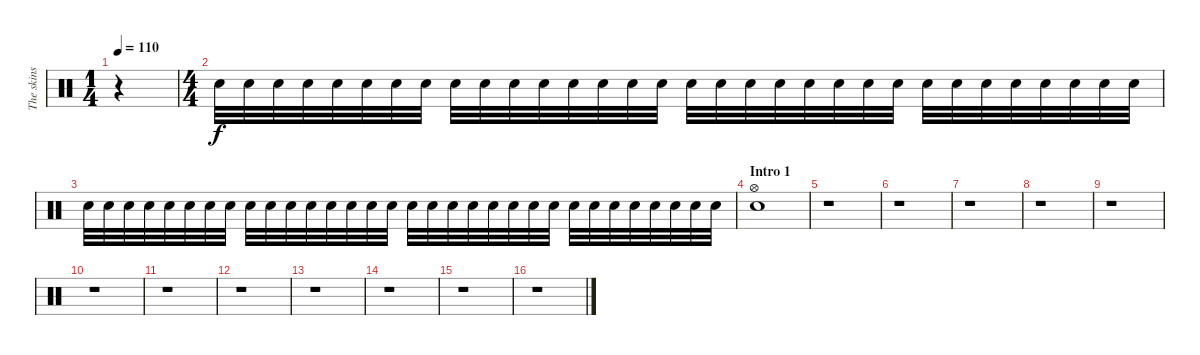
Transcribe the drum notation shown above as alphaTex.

\track ("The skins" "The skins") {instrument percussion}
\staff {score}
\articulation defaults
\ts (1 4)
\tempo 110
\clef neutral
\ks c
r.4{dy f} |
\ts (4 4)
"Electric Snare (hit)".32{volume 0} "Electric Snare (hit)".32 "Electric Snare (hit)".32 "Electric Snare (hit)".32 "Electric Snare (hit)".32 "Electric Snare (hit)".32 "Electric Snare (hit)".32 "Electric Snare (hit)".32 "Electric Snare (hit)".32{volume 13} "Electric Snare (hit)".32 "Electric Snare (hit)".32 "Electric Snare (hit)".32 "Electric Snare (hit)".32 "Electric Snare (hit)".32 "Electric Snare (hit)".32 "Electric Snare (hit)".32 "Electric Snare (hit)".32 "Electric Snare (hit)".32 "Electric Snare (hit)".32 "Electric Snare (hit)".32 "Electric Snare (hit)".32 "Electric Snare (hit)".32 "Electric Snare (hit)".32 "Electric Snare (hit)".32 "Electric Snare (hit)".32 "Electric Snare (hit)".32 "Electric Snare (hit)".32 "Electric Snare (hit)".32 "Electric Snare (hit)".32 "Electric Snare (hit)".32 "Electric Snare (hit)".32 "Electric Snare (hit)".32 |
"Electric Snare (hit)".32 "Electric Snare (hit)".32 "Electric Snare (hit)".32 "Electric Snare (hit)".32 "Electric Snare (hit)".32 "Electric Snare (hit)".32 "Electric Snare (hit)".32 "Electric Snare (hit)".32 "Electric Snare (hit)".32 "Electric Snare (hit)".32 "Electric Snare (hit)".32 "Electric Snare (hit)".32 "Electric Snare (hit)".32 "Electric Snare (hit)".32 "Electric Snare (hit)".32 "Electric Snare (hit)".32 "Electric Snare (hit)".32 "Electric Snare (hit)".32 "Electric Snare (hit)".32 "Electric Snare (hit)".32 "Electric Snare (hit)".32 "Electric Snare (hit)".32 "Electric Snare (hit)".32 "Electric Snare (hit)".32 "Electric Snare (hit)".32 "Electric Snare (hit)".32 "Electric Snare (hit)".32 "Electric Snare (hit)".32 "Electric Snare (hit)".32 "Electric Snare (hit)".32 "Electric Snare (hit)".32 "Electric Snare (hit)".32 |
\section ("" "Intro 1")
("Hi-Hat (open)" "Electric Snare (hit)").1 |
r.1 |
r.1 |
r.1 |
r.1 |
r.1 |
r.1 |
r.1 |
r.1 |
r.1 |
r.1 |
r.1 |
r.1
